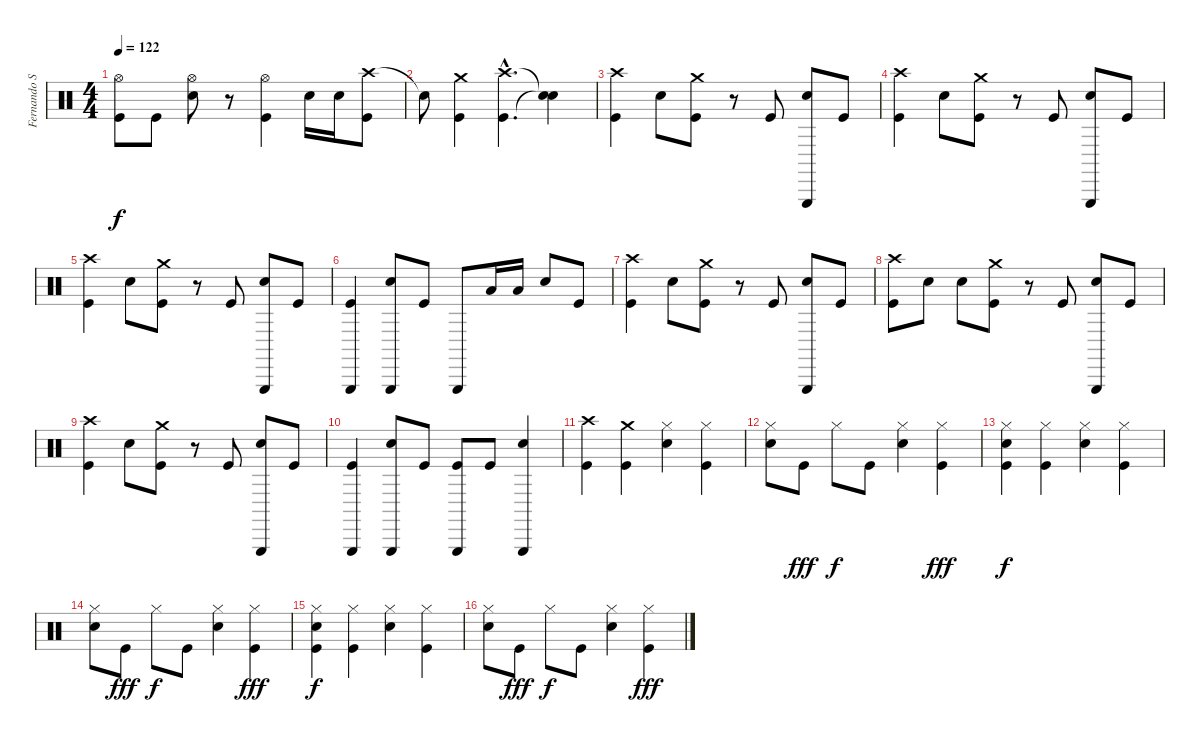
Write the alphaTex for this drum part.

\track ("Fernando Sanchez" "Fernando S") {instrument percussion}
\staff {score}
\articulation defaults
\ts (4 4)
\tempo 122
\clef neutral
\ks c
("Hi-Hat (open)" "Kick (hit)").8{dy f} "Kick (hit)".8 ("Hi-Hat (open)" "Electric Snare (hit)").8 r.8 ("Hi-Hat (open)" "Kick (hit)").4 "Electric Snare (hit)".16 "Electric Snare (hit)".16 ("Crash high (hit)" "Kick (hit)").8 |
"Snare (hit)"{t}.8 ("Crash medium (hit)" "Kick (hit)").4 ("Crash high (hit)"{hac} "Kick (hit)"{hac}).4{d} ("Snare (hit)"{t} "Snare (hit)"{t}).4 |
("Crash high (hit)" "Kick (hit)").4 "Electric Snare (hit)".8 ("Crash medium (hit)" "Kick (hit)").8 r.8 "Kick (hit)".8 ("Triangle (hit)" "Electric Snare (hit)").8 "Kick (hit)".8 |
("Crash high (hit)" "Kick (hit)").4 "Electric Snare (hit)".8 ("Crash medium (hit)" "Kick (hit)").8 r.8 "Kick (hit)".8 ("Triangle (hit)" "Electric Snare (hit)").8 "Kick (hit)".8 |
("Crash high (hit)" "Kick (hit)").4 "Electric Snare (hit)".8 ("Crash medium (hit)" "Kick (hit)").8 r.8 "Kick (hit)".8 ("Triangle (hit)" "Electric Snare (hit)").8 "Kick (hit)".8 |
("Triangle (hit)" "Kick (hit)").4 ("Triangle (hit)" "Electric Snare (hit)").8 "Kick (hit)".8 "Triangle (hit)".8 "Low Tom (hit)".16 "Low Tom (hit)".16 "Electric Snare (hit)".8 "Kick (hit)".8 |
("Crash high (hit)" "Kick (hit)").4 "Electric Snare (hit)".8 ("Crash medium (hit)" "Kick (hit)").8 r.8 "Kick (hit)".8 ("Triangle (hit)" "Electric Snare (hit)").8 "Kick (hit)".8 |
("Crash high (hit)" "Kick (hit)").8 "Electric Snare (hit)".8 "Electric Snare (hit)".8 ("Crash medium (hit)" "Kick (hit)").8 r.8 "Kick (hit)".8 ("Triangle (hit)" "Electric Snare (hit)").8 "Kick (hit)".8 |
("Crash high (hit)" "Kick (hit)").4 "Electric Snare (hit)".8 ("Crash medium (hit)" "Kick (hit)").8 r.8 "Kick (hit)".8 ("Triangle (hit)" "Electric Snare (hit)").8 "Kick (hit)".8 |
("Triangle (hit)" "Kick (hit)").4 ("Triangle (hit)" "Electric Snare (hit)").8 "Kick (hit)".8 ("Triangle (hit)" "Kick (hit)").8 "Kick (hit)".8 ("Triangle (hit)" "Electric Snare (hit)").4 |
("Crash high (hit)" "Kick (hit)").4 ("Crash medium (hit)" "Kick (hit)").4 ("Hi-Hat (closed)" "Electric Snare (hit)").4 ("Hi-Hat (closed)" "Kick (hit)").4 |
("Hi-Hat (closed)" "Electric Snare (hit)").8 "Kick (hit)".8{dy fff} "Hi-Hat (closed)".8{dy f} "Kick (hit)".8 ("Hi-Hat (closed)" "Electric Snare (hit)").4 ("Hi-Hat (closed)" "Kick (hit)").4{dy fff} |
("Hi-Hat (closed)" "Electric Snare (hit)" "Kick (hit)").4{dy f} ("Hi-Hat (closed)" "Kick (hit)").4 ("Hi-Hat (closed)" "Electric Snare (hit)").4 ("Hi-Hat (closed)" "Kick (hit)").4 |
("Hi-Hat (closed)" "Electric Snare (hit)").8 "Kick (hit)".8{dy fff} "Hi-Hat (closed)".8{dy f} "Kick (hit)".8 ("Hi-Hat (closed)" "Electric Snare (hit)").4 ("Hi-Hat (closed)" "Kick (hit)").4{dy fff} |
("Hi-Hat (closed)" "Electric Snare (hit)" "Kick (hit)").4{dy f} ("Hi-Hat (closed)" "Kick (hit)").4 ("Hi-Hat (closed)" "Electric Snare (hit)").4 ("Hi-Hat (closed)" "Kick (hit)").4 |
("Hi-Hat (closed)" "Electric Snare (hit)").8 "Kick (hit)".8{dy fff} "Hi-Hat (closed)".8{dy f} "Kick (hit)".8 ("Hi-Hat (closed)" "Electric Snare (hit)").4 ("Hi-Hat (closed)" "Kick (hit)").4{dy fff}
